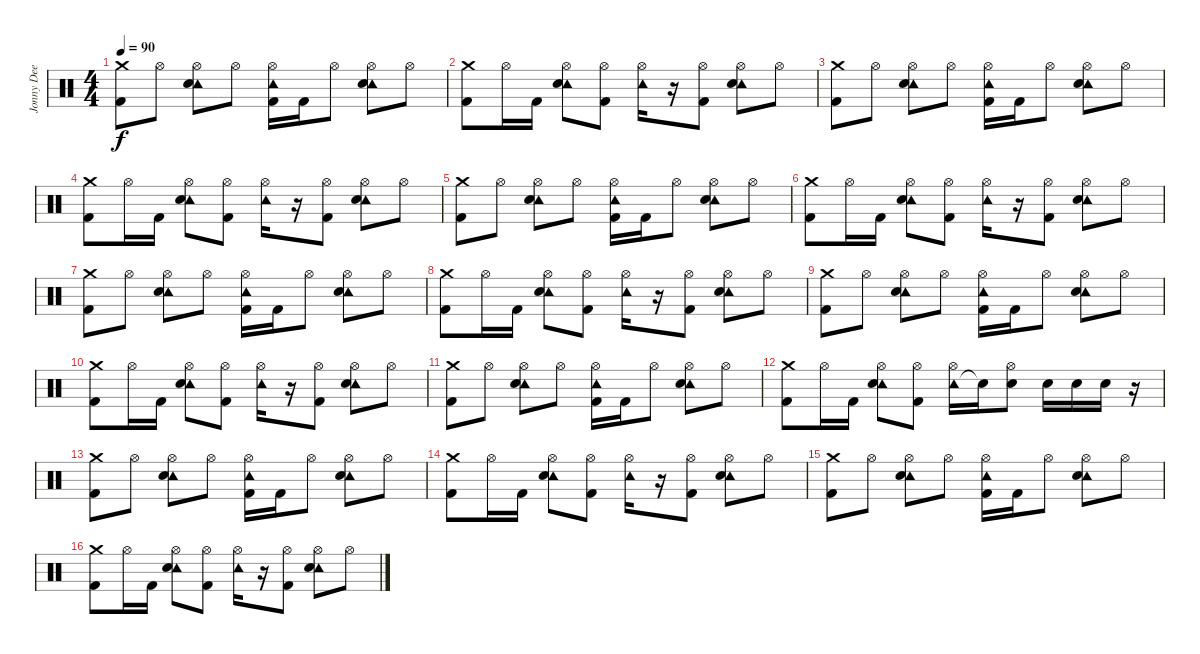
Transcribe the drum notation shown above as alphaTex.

\track ("Jonny Dee" "Jonny Dee") {instrument percussion}
\staff {score}
\articulation defaults
\ts (4 4)
\tempo 90
\clef neutral
\ks c
("Crash medium (hit)" "Kick (hit) 2").8{dy f} "Hi-Hat (open)".8 ("Tambourine (hit)" "Hi-Hat (open)" "Snare (hit) 2").8 "Hi-Hat (open)".8 ("Tambourine (hit)" "Hi-Hat (open)" "Kick (hit) 2").16 "Kick (hit) 2".16 "Hi-Hat (open)".8 ("Tambourine (hit)" "Hi-Hat (open)" "Snare (hit) 2").8 "Hi-Hat (open)".8 |
("Crash medium (hit)" "Kick (hit) 2").8 "Hi-Hat (open)".16 "Kick (hit) 2".16 ("Tambourine (hit)" "Hi-Hat (open)" "Snare (hit) 2").8 ("Hi-Hat (open)" "Kick (hit) 2").8 ("Tambourine (hit)" "Hi-Hat (open)").16 r.16 ("Hi-Hat (open)" "Kick (hit) 2").8 ("Tambourine (hit)" "Hi-Hat (open)" "Snare (hit) 2").8 "Hi-Hat (open)".8 |
("Crash medium (hit)" "Kick (hit) 2").8 "Hi-Hat (open)".8 ("Tambourine (hit)" "Hi-Hat (open)" "Snare (hit) 2").8 "Hi-Hat (open)".8 ("Tambourine (hit)" "Hi-Hat (open)" "Kick (hit) 2").16 "Kick (hit) 2".16 "Hi-Hat (open)".8 ("Tambourine (hit)" "Hi-Hat (open)" "Snare (hit) 2").8 "Hi-Hat (open)".8 |
("Crash medium (hit)" "Kick (hit) 2").8 "Hi-Hat (open)".16 "Kick (hit) 2".16 ("Tambourine (hit)" "Hi-Hat (open)" "Snare (hit) 2").8 ("Hi-Hat (open)" "Kick (hit) 2").8 ("Tambourine (hit)" "Hi-Hat (open)").16 r.16 ("Hi-Hat (open)" "Kick (hit) 2").8 ("Tambourine (hit)" "Hi-Hat (open)" "Snare (hit) 2").8 "Hi-Hat (open)".8 |
("Crash medium (hit)" "Kick (hit) 2").8 "Hi-Hat (open)".8 ("Tambourine (hit)" "Hi-Hat (open)" "Snare (hit) 2").8 "Hi-Hat (open)".8 ("Tambourine (hit)" "Hi-Hat (open)" "Kick (hit) 2").16 "Kick (hit) 2".16 "Hi-Hat (open)".8 ("Tambourine (hit)" "Hi-Hat (open)" "Snare (hit) 2").8 "Hi-Hat (open)".8 |
("Crash medium (hit)" "Kick (hit) 2").8 "Hi-Hat (open)".16 "Kick (hit) 2".16 ("Tambourine (hit)" "Hi-Hat (open)" "Snare (hit) 2").8 ("Hi-Hat (open)" "Kick (hit) 2").8 ("Tambourine (hit)" "Hi-Hat (open)").16 r.16 ("Hi-Hat (open)" "Kick (hit) 2").8 ("Tambourine (hit)" "Hi-Hat (open)" "Snare (hit) 2").8 "Hi-Hat (open)".8 |
("Crash medium (hit)" "Kick (hit) 2").8 "Hi-Hat (open)".8 ("Tambourine (hit)" "Hi-Hat (open)" "Snare (hit) 2").8 "Hi-Hat (open)".8 ("Tambourine (hit)" "Hi-Hat (open)" "Kick (hit) 2").16 "Kick (hit) 2".16 "Hi-Hat (open)".8 ("Tambourine (hit)" "Hi-Hat (open)" "Snare (hit) 2").8 "Hi-Hat (open)".8 |
("Crash medium (hit)" "Kick (hit) 2").8 "Hi-Hat (open)".16 "Kick (hit) 2".16 ("Tambourine (hit)" "Hi-Hat (open)" "Snare (hit) 2").8 ("Hi-Hat (open)" "Kick (hit) 2").8 ("Tambourine (hit)" "Hi-Hat (open)").16 r.16 ("Hi-Hat (open)" "Kick (hit) 2").8 ("Tambourine (hit)" "Hi-Hat (open)" "Snare (hit) 2").8 "Hi-Hat (open)".8 |
("Crash medium (hit)" "Kick (hit) 2").8 "Hi-Hat (open)".8 ("Tambourine (hit)" "Hi-Hat (open)" "Snare (hit) 2").8 "Hi-Hat (open)".8 ("Tambourine (hit)" "Hi-Hat (open)" "Kick (hit) 2").16 "Kick (hit) 2".16 "Hi-Hat (open)".8 ("Tambourine (hit)" "Hi-Hat (open)" "Snare (hit) 2").8 "Hi-Hat (open)".8 |
("Crash medium (hit)" "Kick (hit) 2").8 "Hi-Hat (open)".16 "Kick (hit) 2".16 ("Tambourine (hit)" "Hi-Hat (open)" "Snare (hit) 2").8 ("Hi-Hat (open)" "Kick (hit) 2").8 ("Tambourine (hit)" "Hi-Hat (open)").16 r.16 ("Hi-Hat (open)" "Kick (hit) 2").8 ("Tambourine (hit)" "Hi-Hat (open)" "Snare (hit) 2").8 "Hi-Hat (open)".8 |
("Crash medium (hit)" "Kick (hit) 2").8 "Hi-Hat (open)".8 ("Tambourine (hit)" "Hi-Hat (open)" "Snare (hit) 2").8 "Hi-Hat (open)".8 ("Tambourine (hit)" "Hi-Hat (open)" "Kick (hit) 2").16 "Kick (hit) 2".16 "Hi-Hat (open)".8 ("Tambourine (hit)" "Hi-Hat (open)" "Snare (hit) 2").8 "Hi-Hat (open)".8 |
("Crash medium (hit)" "Kick (hit) 2").8 "Hi-Hat (open)".16 "Kick (hit) 2".16 ("Tambourine (hit)" "Hi-Hat (open)" "Snare (hit) 2").8 ("Hi-Hat (open)" "Kick (hit) 2").8 ("Tambourine (hit)" "Hi-Hat (open)").16 "Snare (hit)"{t}.16 ("Hi-Hat (open)" "Snare (hit) 2").8 "Snare (hit) 2".16 "Snare (hit) 2".16 "Snare (hit) 2".16 r.16 |
("Crash medium (hit)" "Kick (hit) 2").8 "Hi-Hat (open)".8 ("Tambourine (hit)" "Hi-Hat (open)" "Snare (hit) 2").8 "Hi-Hat (open)".8 ("Tambourine (hit)" "Hi-Hat (open)" "Kick (hit) 2").16 "Kick (hit) 2".16 "Hi-Hat (open)".8 ("Tambourine (hit)" "Hi-Hat (open)" "Snare (hit) 2").8 "Hi-Hat (open)".8 |
("Crash medium (hit)" "Kick (hit) 2").8 "Hi-Hat (open)".16 "Kick (hit) 2".16 ("Tambourine (hit)" "Hi-Hat (open)" "Snare (hit) 2").8 ("Hi-Hat (open)" "Kick (hit) 2").8 ("Tambourine (hit)" "Hi-Hat (open)").16 r.16 ("Hi-Hat (open)" "Kick (hit) 2").8 ("Tambourine (hit)" "Hi-Hat (open)" "Snare (hit) 2").8 "Hi-Hat (open)".8 |
("Crash medium (hit)" "Kick (hit) 2").8 "Hi-Hat (open)".8 ("Tambourine (hit)" "Hi-Hat (open)" "Snare (hit) 2").8 "Hi-Hat (open)".8 ("Tambourine (hit)" "Hi-Hat (open)" "Kick (hit) 2").16 "Kick (hit) 2".16 "Hi-Hat (open)".8 ("Tambourine (hit)" "Hi-Hat (open)" "Snare (hit) 2").8 "Hi-Hat (open)".8 |
("Crash medium (hit)" "Kick (hit) 2").8 "Hi-Hat (open)".16 "Kick (hit) 2".16 ("Tambourine (hit)" "Hi-Hat (open)" "Snare (hit) 2").8 ("Hi-Hat (open)" "Kick (hit) 2").8 ("Tambourine (hit)" "Hi-Hat (open)").16 r.16 ("Hi-Hat (open)" "Kick (hit) 2").8 ("Tambourine (hit)" "Hi-Hat (open)" "Snare (hit) 2").8 "Hi-Hat (open)".8
